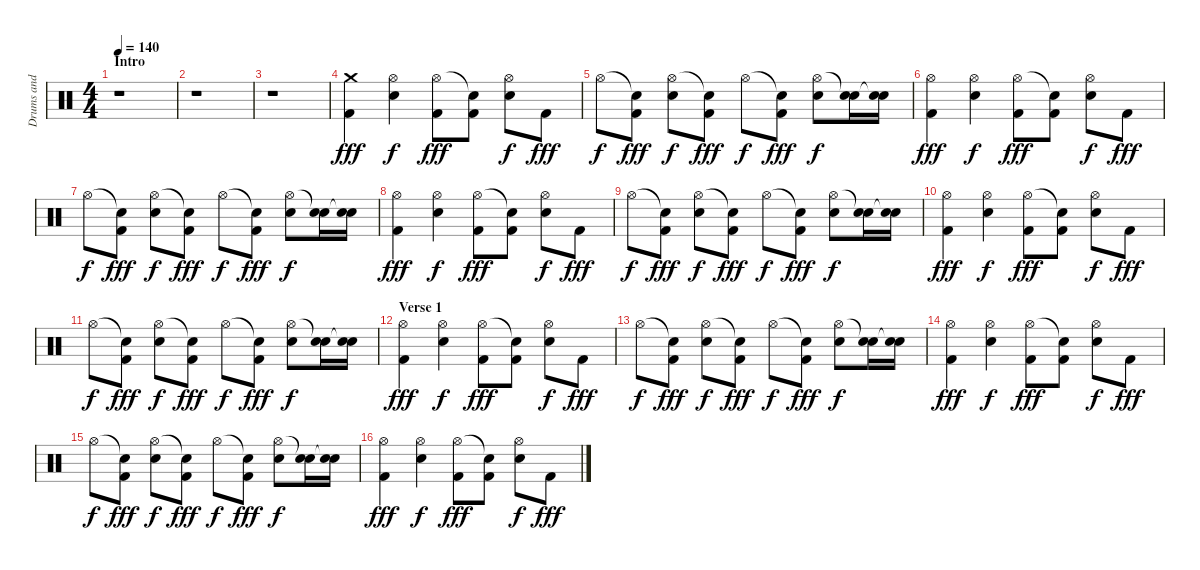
\track ("Drums and Percussion" "Drums and ") {instrument percussion}
\staff {score}
\articulation defaults
\ts (4 4)
\section ("" "Intro")
\tempo 140
\clef neutral
\ks c
r.1{dy fff} |
r.1 |
r.1 |
("Crash medium (hit)" "Kick (hit) 2").4 ("Hi-Hat (open)" "Snare (hit) 2").4{dy f} ("Hi-Hat (open)" "Kick (hit) 2").8{dy fff} ("Snare (hit)"{t} "Kick (hit) 2").8 ("Hi-Hat (open)" "Snare (hit) 2").8{dy f} "Kick (hit) 2".8{dy fff} |
"Hi-Hat (open)".8{dy f} ("Snare (hit)"{t} "Kick (hit) 2").8{dy fff} ("Hi-Hat (open)" "Snare (hit) 2").8{dy f} ("Snare (hit)"{t} "Kick (hit) 2").8{dy fff} "Hi-Hat (open)".8{dy f} ("Snare (hit)"{t} "Kick (hit) 2").8{dy fff} ("Hi-Hat (open)" "Snare (hit) 2").8{dy f} ("Snare (hit)"{t} "Snare (hit) 2").16 ("Snare (hit)"{t} "Snare (hit) 2").16 |
("Hi-Hat (open)" "Kick (hit) 2").4{dy fff} ("Hi-Hat (open)" "Snare (hit) 2").4{dy f} ("Hi-Hat (open)" "Kick (hit) 2").8{dy fff} ("Snare (hit)"{t} "Kick (hit) 2").8 ("Hi-Hat (open)" "Snare (hit) 2").8{dy f} "Kick (hit) 2".8{dy fff} |
"Hi-Hat (open)".8{dy f} ("Snare (hit)"{t} "Kick (hit) 2").8{dy fff} ("Hi-Hat (open)" "Snare (hit) 2").8{dy f} ("Snare (hit)"{t} "Kick (hit) 2").8{dy fff} "Hi-Hat (open)".8{dy f} ("Snare (hit)"{t} "Kick (hit) 2").8{dy fff} ("Hi-Hat (open)" "Snare (hit) 2").8{dy f} ("Snare (hit)"{t} "Snare (hit) 2").16 ("Snare (hit)"{t} "Snare (hit) 2").16 |
("Hi-Hat (open)" "Kick (hit) 2").4{dy fff} ("Hi-Hat (open)" "Snare (hit) 2").4{dy f} ("Hi-Hat (open)" "Kick (hit) 2").8{dy fff} ("Snare (hit)"{t} "Kick (hit) 2").8 ("Hi-Hat (open)" "Snare (hit) 2").8{dy f} "Kick (hit) 2".8{dy fff} |
"Hi-Hat (open)".8{dy f} ("Snare (hit)"{t} "Kick (hit) 2").8{dy fff} ("Hi-Hat (open)" "Snare (hit) 2").8{dy f} ("Snare (hit)"{t} "Kick (hit) 2").8{dy fff} "Hi-Hat (open)".8{dy f} ("Snare (hit)"{t} "Kick (hit) 2").8{dy fff} ("Hi-Hat (open)" "Snare (hit) 2").8{dy f} ("Snare (hit)"{t} "Snare (hit) 2").16 ("Snare (hit)"{t} "Snare (hit) 2").16 |
("Hi-Hat (open)" "Kick (hit) 2").4{dy fff} ("Hi-Hat (open)" "Snare (hit) 2").4{dy f} ("Hi-Hat (open)" "Kick (hit) 2").8{dy fff} ("Snare (hit)"{t} "Kick (hit) 2").8 ("Hi-Hat (open)" "Snare (hit) 2").8{dy f} "Kick (hit) 2".8{dy fff} |
"Hi-Hat (open)".8{dy f} ("Snare (hit)"{t} "Kick (hit) 2").8{dy fff} ("Hi-Hat (open)" "Snare (hit) 2").8{dy f} ("Snare (hit)"{t} "Kick (hit) 2").8{dy fff} "Hi-Hat (open)".8{dy f} ("Snare (hit)"{t} "Kick (hit) 2").8{dy fff} ("Hi-Hat (open)" "Snare (hit) 2").8{dy f} ("Snare (hit)"{t} "Snare (hit) 2").16 ("Snare (hit)"{t} "Snare (hit) 2").16 |
\section ("" "Verse 1")
("Hi-Hat (open)" "Kick (hit) 2").4{dy fff} ("Hi-Hat (open)" "Snare (hit) 2").4{dy f} ("Hi-Hat (open)" "Kick (hit) 2").8{dy fff} ("Snare (hit)"{t} "Kick (hit) 2").8 ("Hi-Hat (open)" "Snare (hit) 2").8{dy f} "Kick (hit) 2".8{dy fff} |
"Hi-Hat (open)".8{dy f} ("Snare (hit)"{t} "Kick (hit) 2").8{dy fff} ("Hi-Hat (open)" "Snare (hit) 2").8{dy f} ("Snare (hit)"{t} "Kick (hit) 2").8{dy fff} "Hi-Hat (open)".8{dy f} ("Snare (hit)"{t} "Kick (hit) 2").8{dy fff} ("Hi-Hat (open)" "Snare (hit) 2").8{dy f} ("Snare (hit)"{t} "Snare (hit) 2").16 ("Snare (hit)"{t} "Snare (hit) 2").16 |
("Hi-Hat (open)" "Kick (hit) 2").4{dy fff} ("Hi-Hat (open)" "Snare (hit) 2").4{dy f} ("Hi-Hat (open)" "Kick (hit) 2").8{dy fff} ("Snare (hit)"{t} "Kick (hit) 2").8 ("Hi-Hat (open)" "Snare (hit) 2").8{dy f} "Kick (hit) 2".8{dy fff} |
"Hi-Hat (open)".8{dy f} ("Snare (hit)"{t} "Kick (hit) 2").8{dy fff} ("Hi-Hat (open)" "Snare (hit) 2").8{dy f} ("Snare (hit)"{t} "Kick (hit) 2").8{dy fff} "Hi-Hat (open)".8{dy f} ("Snare (hit)"{t} "Kick (hit) 2").8{dy fff} ("Hi-Hat (open)" "Snare (hit) 2").8{dy f} ("Snare (hit)"{t} "Snare (hit) 2").16 ("Snare (hit)"{t} "Snare (hit) 2").16 |
("Hi-Hat (open)" "Kick (hit) 2").4{dy fff} ("Hi-Hat (open)" "Snare (hit) 2").4{dy f} ("Hi-Hat (open)" "Kick (hit) 2").8{dy fff} ("Snare (hit)"{t} "Kick (hit) 2").8 ("Hi-Hat (open)" "Snare (hit) 2").8{dy f} "Kick (hit) 2".8{dy fff}
